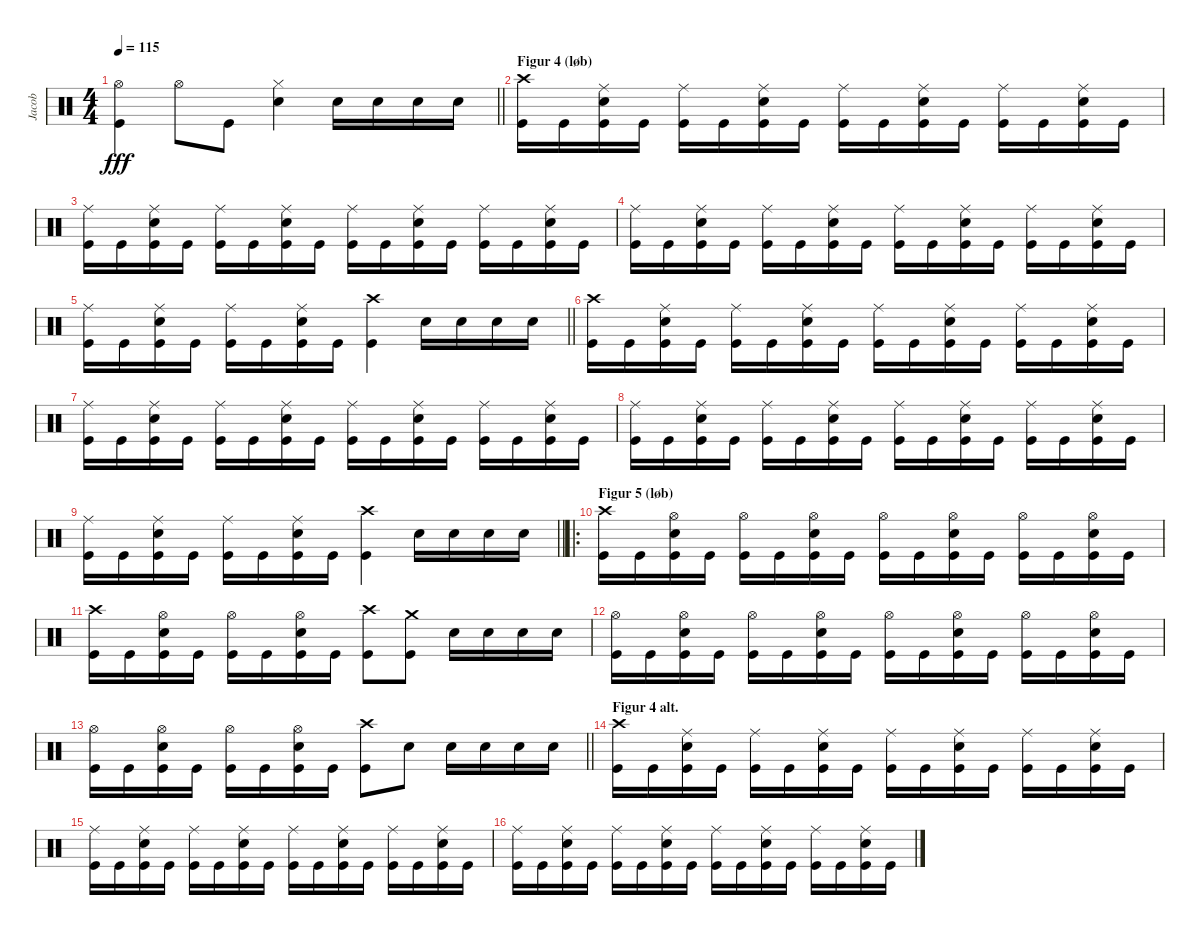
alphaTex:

\track ("Jacob" "Jacob") {instrument percussion}
\staff {score}
\articulation defaults
\ts (4 4)
\tempo 115
\clef neutral
\barLineRight lightlight
\ks c
("Kick (hit)" "Hi-Hat (open)").4{dy fff} "Hi-Hat (open)".8 "Kick (hit)".8 ("Electric Snare (hit)" "Hi-Hat (closed)").4 "Electric Snare (hit)".16 "Electric Snare (hit)".16 "Electric Snare (hit)".16 "Electric Snare (hit)".16 |
\section ("" "Figur 4 (løb)")
("Kick (hit)" "Crash high (hit)").16 "Kick (hit)".16 ("Kick (hit)" "Electric Snare (hit)" "Ride (middle)").16 "Kick (hit)".16 ("Kick (hit)" "Ride (middle)").16 "Kick (hit)".16 ("Kick (hit)" "Electric Snare (hit)" "Ride (middle)").16 "Kick (hit)".16 ("Kick (hit)" "Ride (middle)").16 "Kick (hit)".16 ("Kick (hit)" "Electric Snare (hit)" "Ride (middle)").16 "Kick (hit)".16 ("Kick (hit)" "Ride (middle)").16 "Kick (hit)".16 ("Kick (hit)" "Electric Snare (hit)" "Ride (middle)").16 "Kick (hit)".16 |
("Kick (hit)" "Ride (middle)").16 "Kick (hit)".16 ("Kick (hit)" "Electric Snare (hit)" "Ride (middle)").16 "Kick (hit)".16 ("Kick (hit)" "Ride (middle)").16 "Kick (hit)".16 ("Kick (hit)" "Electric Snare (hit)" "Ride (middle)").16 "Kick (hit)".16 ("Kick (hit)" "Ride (middle)").16 "Kick (hit)".16 ("Kick (hit)" "Electric Snare (hit)" "Ride (middle)").16 "Kick (hit)".16 ("Kick (hit)" "Ride (middle)").16 "Kick (hit)".16 ("Kick (hit)" "Electric Snare (hit)" "Ride (middle)").16 "Kick (hit)".16 |
("Kick (hit)" "Ride (middle)").16 "Kick (hit)".16 ("Kick (hit)" "Electric Snare (hit)" "Ride (middle)").16 "Kick (hit)".16 ("Kick (hit)" "Ride (middle)").16 "Kick (hit)".16 ("Kick (hit)" "Electric Snare (hit)" "Ride (middle)").16 "Kick (hit)".16 ("Kick (hit)" "Ride (middle)").16 "Kick (hit)".16 ("Kick (hit)" "Electric Snare (hit)" "Ride (middle)").16 "Kick (hit)".16 ("Kick (hit)" "Ride (middle)").16 "Kick (hit)".16 ("Kick (hit)" "Electric Snare (hit)" "Ride (middle)").16 "Kick (hit)".16 |
\barLineRight lightlight
("Kick (hit)" "Ride (middle)").16 "Kick (hit)".16 ("Kick (hit)" "Electric Snare (hit)" "Ride (middle)").16 "Kick (hit)".16 ("Kick (hit)" "Ride (middle)").16 "Kick (hit)".16 ("Kick (hit)" "Electric Snare (hit)" "Ride (middle)").16 "Kick (hit)".16 ("Kick (hit)" "Crash high (hit)").4 "Electric Snare (hit)".16 "Electric Snare (hit)".16 "Electric Snare (hit)".16 "Electric Snare (hit)".16 |
("Kick (hit)" "Crash high (hit)").16 "Kick (hit)".16 ("Kick (hit)" "Electric Snare (hit)" "Ride (middle)").16 "Kick (hit)".16 ("Kick (hit)" "Ride (middle)").16 "Kick (hit)".16 ("Kick (hit)" "Electric Snare (hit)" "Ride (middle)").16 "Kick (hit)".16 ("Kick (hit)" "Ride (middle)").16 "Kick (hit)".16 ("Kick (hit)" "Electric Snare (hit)" "Ride (middle)").16 "Kick (hit)".16 ("Kick (hit)" "Ride (middle)").16 "Kick (hit)".16 ("Kick (hit)" "Electric Snare (hit)" "Ride (middle)").16 "Kick (hit)".16 |
("Kick (hit)" "Ride (middle)").16 "Kick (hit)".16 ("Kick (hit)" "Electric Snare (hit)" "Ride (middle)").16 "Kick (hit)".16 ("Kick (hit)" "Ride (middle)").16 "Kick (hit)".16 ("Kick (hit)" "Electric Snare (hit)" "Ride (middle)").16 "Kick (hit)".16 ("Kick (hit)" "Ride (middle)").16 "Kick (hit)".16 ("Kick (hit)" "Electric Snare (hit)" "Ride (middle)").16 "Kick (hit)".16 ("Kick (hit)" "Ride (middle)").16 "Kick (hit)".16 ("Kick (hit)" "Electric Snare (hit)" "Ride (middle)").16 "Kick (hit)".16 |
("Kick (hit)" "Ride (middle)").16 "Kick (hit)".16 ("Kick (hit)" "Electric Snare (hit)" "Ride (middle)").16 "Kick (hit)".16 ("Kick (hit)" "Ride (middle)").16 "Kick (hit)".16 ("Kick (hit)" "Electric Snare (hit)" "Ride (middle)").16 "Kick (hit)".16 ("Kick (hit)" "Ride (middle)").16 "Kick (hit)".16 ("Kick (hit)" "Electric Snare (hit)" "Ride (middle)").16 "Kick (hit)".16 ("Kick (hit)" "Ride (middle)").16 "Kick (hit)".16 ("Kick (hit)" "Electric Snare (hit)" "Ride (middle)").16 "Kick (hit)".16 |
\barLineRight lightlight
("Kick (hit)" "Ride (middle)").16 "Kick (hit)".16 ("Kick (hit)" "Electric Snare (hit)" "Ride (middle)").16 "Kick (hit)".16 ("Kick (hit)" "Ride (middle)").16 "Kick (hit)".16 ("Kick (hit)" "Electric Snare (hit)" "Ride (middle)").16 "Kick (hit)".16 ("Kick (hit)" "Crash high (hit)").4 "Electric Snare (hit)".16 "Electric Snare (hit)".16 "Electric Snare (hit)".16 "Electric Snare (hit)".16 |
\ro
\section ("" "Figur 5 (løb)")
("Kick (hit)" "Crash high (hit)").16 "Kick (hit)".16 ("Kick (hit)" "Electric Snare (hit)" "Hi-Hat (open)").16 "Kick (hit)".16 ("Kick (hit)" "Hi-Hat (open)").16 "Kick (hit)".16 ("Kick (hit)" "Electric Snare (hit)" "Hi-Hat (open)").16 "Kick (hit)".16 ("Kick (hit)" "Hi-Hat (open)").16 "Kick (hit)".16 ("Kick (hit)" "Electric Snare (hit)" "Hi-Hat (open)").16 "Kick (hit)".16 ("Kick (hit)" "Hi-Hat (open)").16 "Kick (hit)".16 ("Kick (hit)" "Electric Snare (hit)" "Hi-Hat (open)").16 "Kick (hit)".16 |
("Kick (hit)" "Crash high (hit)").16 "Kick (hit)".16 ("Kick (hit)" "Electric Snare (hit)" "Hi-Hat (open)").16 "Kick (hit)".16 ("Kick (hit)" "Hi-Hat (open)").16 "Kick (hit)".16 ("Kick (hit)" "Electric Snare (hit)" "Hi-Hat (open)").16 "Kick (hit)".16 ("Kick (hit)" "Crash high (hit)").8 ("Kick (hit)" "Crash medium (hit)").8 "Electric Snare (hit)".16 "Electric Snare (hit)".16 "Electric Snare (hit)".16 "Electric Snare (hit)".16 |
("Kick (hit)" "Hi-Hat (open)").16 "Kick (hit)".16 ("Kick (hit)" "Electric Snare (hit)" "Hi-Hat (open)").16 "Kick (hit)".16 ("Kick (hit)" "Hi-Hat (open)").16 "Kick (hit)".16 ("Kick (hit)" "Electric Snare (hit)" "Hi-Hat (open)").16 "Kick (hit)".16 ("Kick (hit)" "Hi-Hat (open)").16 "Kick (hit)".16 ("Kick (hit)" "Electric Snare (hit)" "Hi-Hat (open)").16 "Kick (hit)".16 ("Kick (hit)" "Hi-Hat (open)").16 "Kick (hit)".16 ("Kick (hit)" "Electric Snare (hit)" "Hi-Hat (open)").16 "Kick (hit)".16 |
\barLineRight lightlight
("Kick (hit)" "Hi-Hat (open)").16 "Kick (hit)".16 ("Kick (hit)" "Electric Snare (hit)" "Hi-Hat (open)").16 "Kick (hit)".16 ("Kick (hit)" "Hi-Hat (open)").16 "Kick (hit)".16 ("Kick (hit)" "Electric Snare (hit)" "Hi-Hat (open)").16 "Kick (hit)".16 ("Kick (hit)" "Crash high (hit)").8 "Electric Snare (hit)".8 "Electric Snare (hit)".16 "Electric Snare (hit)".16 "Electric Snare (hit)".16 "Electric Snare (hit)".16 |
\section ("" "Figur 4 alt.")
("Kick (hit)" "Crash high (hit)").16 "Kick (hit)".16 ("Kick (hit)" "Electric Snare (hit)" "Ride (middle)").16 "Kick (hit)".16 ("Kick (hit)" "Ride (middle)").16 "Kick (hit)".16 ("Kick (hit)" "Electric Snare (hit)" "Ride (middle)").16 "Kick (hit)".16 ("Kick (hit)" "Ride (middle)").16 "Kick (hit)".16 ("Kick (hit)" "Electric Snare (hit)" "Ride (middle)").16 "Kick (hit)".16 ("Kick (hit)" "Ride (middle)").16 "Kick (hit)".16 ("Kick (hit)" "Electric Snare (hit)" "Ride (middle)").16 "Kick (hit)".16 |
("Kick (hit)" "Ride (middle)").16 "Kick (hit)".16 ("Kick (hit)" "Electric Snare (hit)" "Ride (middle)").16 "Kick (hit)".16 ("Kick (hit)" "Ride (middle)").16 "Kick (hit)".16 ("Kick (hit)" "Electric Snare (hit)" "Ride (middle)").16 "Kick (hit)".16 ("Kick (hit)" "Ride (middle)").16 "Kick (hit)".16 ("Kick (hit)" "Electric Snare (hit)" "Ride (middle)").16 "Kick (hit)".16 ("Kick (hit)" "Ride (middle)").16 "Kick (hit)".16 ("Kick (hit)" "Electric Snare (hit)" "Ride (middle)").16 "Kick (hit)".16 |
("Kick (hit)" "Ride (middle)").16 "Kick (hit)".16 ("Kick (hit)" "Electric Snare (hit)" "Ride (middle)").16 "Kick (hit)".16 ("Kick (hit)" "Ride (middle)").16 "Kick (hit)".16 ("Kick (hit)" "Electric Snare (hit)" "Ride (middle)").16 "Kick (hit)".16 ("Kick (hit)" "Ride (middle)").16 "Kick (hit)".16 ("Kick (hit)" "Electric Snare (hit)" "Ride (middle)").16 "Kick (hit)".16 ("Kick (hit)" "Ride (middle)").16 "Kick (hit)".16 ("Kick (hit)" "Electric Snare (hit)" "Ride (middle)").16 "Kick (hit)".16
